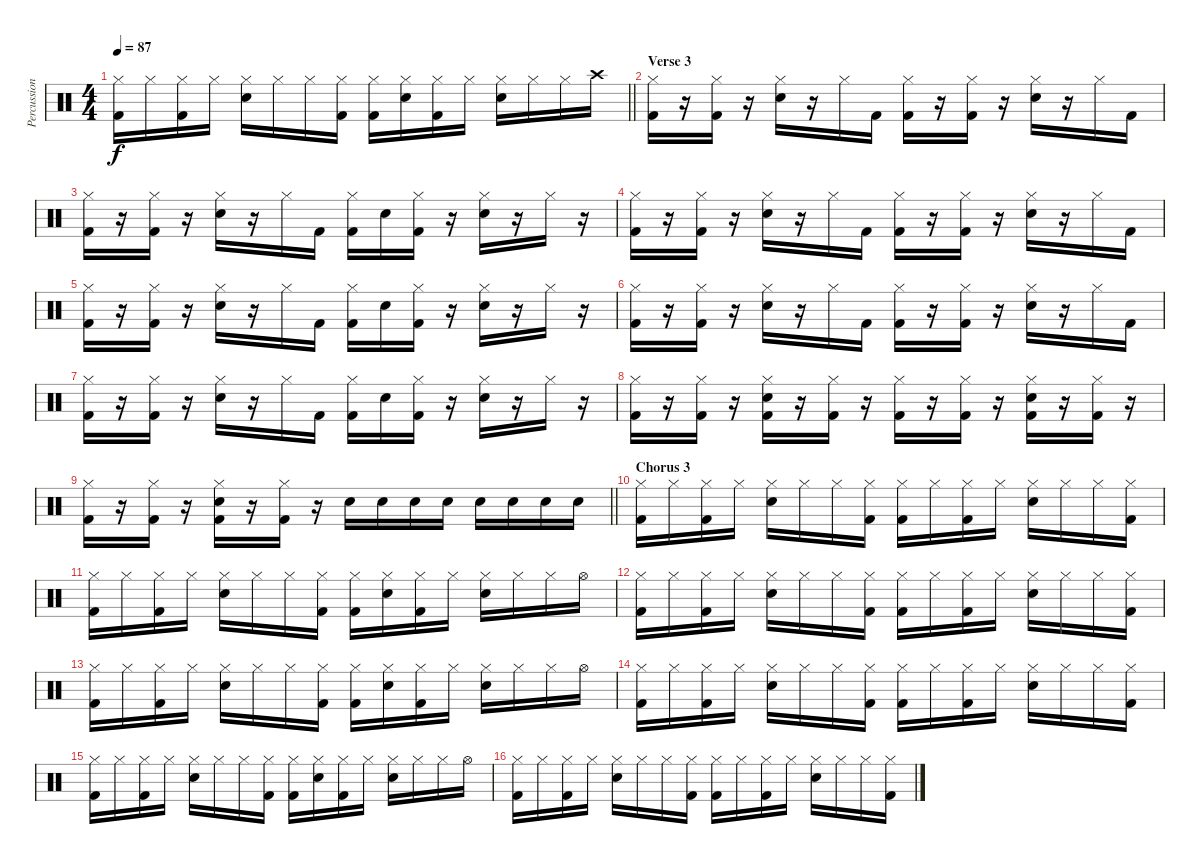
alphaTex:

\track ("Percussion" "Percussion") {instrument percussion}
\staff {score}
\articulation defaults
\ts (4 4)
\tempo 87
\clef neutral
\barLineRight lightlight
\ks c
("Hi-Hat (closed)" "Kick (hit) 2").16{dy f} "Hi-Hat (closed)".16 ("Hi-Hat (closed)" "Kick (hit) 2").16 "Hi-Hat (closed)".16 ("Hi-Hat (closed)" "Snare (hit) 2").16 "Hi-Hat (closed)".16 "Hi-Hat (closed)".16 ("Hi-Hat (closed)" "Kick (hit) 2").16 ("Hi-Hat (closed)" "Kick (hit) 2").16 ("Hi-Hat (closed)" "Snare (hit) 2").16 ("Hi-Hat (closed)" "Kick (hit) 2").16 "Hi-Hat (closed)".16 ("Hi-Hat (closed)" "Snare (hit) 2").16 "Hi-Hat (closed)".16 "Hi-Hat (closed)".16 "Crash high (hit)".16 |
\section ("" "Verse 3")
("Hi-Hat (closed)" "Kick (hit) 2").16 r.16 ("Hi-Hat (closed)" "Kick (hit) 2").16 r.16 ("Hi-Hat (closed)" "Snare (hit) 2").16 r.16 "Hi-Hat (closed)".16 "Kick (hit) 2".16 ("Hi-Hat (closed)" "Kick (hit) 2").16 r.16 ("Hi-Hat (closed)" "Kick (hit) 2").16 r.16 ("Hi-Hat (closed)" "Snare (hit) 2").16 r.16 "Hi-Hat (closed)".16 "Kick (hit) 2".16 |
("Hi-Hat (closed)" "Kick (hit) 2").16 r.16 ("Hi-Hat (closed)" "Kick (hit) 2").16 r.16 ("Hi-Hat (closed)" "Snare (hit) 2").16 r.16 "Hi-Hat (closed)".16 "Kick (hit) 2".16 ("Hi-Hat (closed)" "Kick (hit) 2").16 "Snare (hit) 2".16 ("Hi-Hat (closed)" "Kick (hit) 2").16 r.16 ("Hi-Hat (closed)" "Snare (hit) 2").16 r.16 "Hi-Hat (closed)".16 r.16 |
("Hi-Hat (closed)" "Kick (hit) 2").16 r.16 ("Hi-Hat (closed)" "Kick (hit) 2").16 r.16 ("Hi-Hat (closed)" "Snare (hit) 2").16 r.16 "Hi-Hat (closed)".16 "Kick (hit) 2".16 ("Hi-Hat (closed)" "Kick (hit) 2").16 r.16 ("Hi-Hat (closed)" "Kick (hit) 2").16 r.16 ("Hi-Hat (closed)" "Snare (hit) 2").16 r.16 "Hi-Hat (closed)".16 "Kick (hit) 2".16 |
("Hi-Hat (closed)" "Kick (hit) 2").16 r.16 ("Hi-Hat (closed)" "Kick (hit) 2").16 r.16 ("Hi-Hat (closed)" "Snare (hit) 2").16 r.16 "Hi-Hat (closed)".16 "Kick (hit) 2".16 ("Hi-Hat (closed)" "Kick (hit) 2").16 "Snare (hit) 2".16 ("Hi-Hat (closed)" "Kick (hit) 2").16 r.16 ("Hi-Hat (closed)" "Snare (hit) 2").16 r.16 "Hi-Hat (closed)".16 r.16 |
("Hi-Hat (closed)" "Kick (hit) 2").16 r.16 ("Hi-Hat (closed)" "Kick (hit) 2").16 r.16 ("Hi-Hat (closed)" "Snare (hit) 2").16 r.16 "Hi-Hat (closed)".16 "Kick (hit) 2".16 ("Hi-Hat (closed)" "Kick (hit) 2").16 r.16 ("Hi-Hat (closed)" "Kick (hit) 2").16 r.16 ("Hi-Hat (closed)" "Snare (hit) 2").16 r.16 "Hi-Hat (closed)".16 "Kick (hit) 2".16 |
("Hi-Hat (closed)" "Kick (hit) 2").16 r.16 ("Hi-Hat (closed)" "Kick (hit) 2").16 r.16 ("Hi-Hat (closed)" "Snare (hit) 2").16 r.16 "Hi-Hat (closed)".16 "Kick (hit) 2".16 ("Hi-Hat (closed)" "Kick (hit) 2").16 "Snare (hit) 2".16 ("Hi-Hat (closed)" "Kick (hit) 2").16 r.16 ("Hi-Hat (closed)" "Snare (hit) 2").16 r.16 "Hi-Hat (closed)".16 r.16 |
("Hi-Hat (closed)" "Kick (hit) 2").16 r.16 ("Hi-Hat (closed)" "Kick (hit) 2").16 r.16 ("Hi-Hat (closed)" "Snare (hit) 2" "Kick (hit) 2").16 r.16 ("Hi-Hat (closed)" "Kick (hit) 2").16 r.16 ("Hi-Hat (closed)" "Kick (hit) 2").16 r.16 ("Hi-Hat (closed)" "Kick (hit) 2").16 r.16 ("Hi-Hat (closed)" "Snare (hit) 2" "Kick (hit) 2").16 r.16 ("Hi-Hat (closed)" "Kick (hit) 2").16 r.16 |
\barLineRight lightlight
("Hi-Hat (closed)" "Kick (hit) 2").16 r.16 ("Hi-Hat (closed)" "Kick (hit) 2").16 r.16 ("Hi-Hat (closed)" "Snare (hit) 2" "Kick (hit) 2").16 r.16 ("Hi-Hat (closed)" "Kick (hit) 2").16 r.16 "Snare (hit) 2".16 "Snare (hit) 2".16 "Snare (hit) 2".16 "Snare (hit) 2".16 "Snare (hit) 2".16 "Snare (hit) 2".16 "Snare (hit) 2".16 "Snare (hit) 2".16 |
\section ("" "Chorus 3")
("Hi-Hat (closed)" "Kick (hit) 2").16 "Hi-Hat (closed)".16 ("Hi-Hat (closed)" "Kick (hit) 2").16 "Hi-Hat (closed)".16 ("Hi-Hat (closed)" "Snare (hit) 2").16 "Hi-Hat (closed)".16 "Hi-Hat (closed)".16 ("Hi-Hat (closed)" "Kick (hit) 2").16 ("Hi-Hat (closed)" "Kick (hit) 2").16 "Hi-Hat (closed)".16 ("Hi-Hat (closed)" "Kick (hit) 2").16 "Hi-Hat (closed)".16 ("Hi-Hat (closed)" "Snare (hit) 2").16 "Hi-Hat (closed)".16 "Hi-Hat (closed)".16 ("Hi-Hat (closed)" "Kick (hit) 2").16 |
("Hi-Hat (closed)" "Kick (hit) 2").16 "Hi-Hat (closed)".16 ("Hi-Hat (closed)" "Kick (hit) 2").16 "Hi-Hat (closed)".16 ("Hi-Hat (closed)" "Snare (hit) 2").16 "Hi-Hat (closed)".16 "Hi-Hat (closed)".16 ("Hi-Hat (closed)" "Kick (hit) 2").16 ("Hi-Hat (closed)" "Kick (hit) 2").16 ("Hi-Hat (closed)" "Snare (hit) 2").16 ("Hi-Hat (closed)" "Kick (hit) 2").16 "Hi-Hat (closed)".16 ("Hi-Hat (closed)" "Snare (hit) 2").16 "Hi-Hat (closed)".16 "Hi-Hat (closed)".16 "Hi-Hat (open)".16 |
("Hi-Hat (closed)" "Kick (hit) 2").16 "Hi-Hat (closed)".16 ("Hi-Hat (closed)" "Kick (hit) 2").16 "Hi-Hat (closed)".16 ("Hi-Hat (closed)" "Snare (hit) 2").16 "Hi-Hat (closed)".16 "Hi-Hat (closed)".16 ("Hi-Hat (closed)" "Kick (hit) 2").16 ("Hi-Hat (closed)" "Kick (hit) 2").16 "Hi-Hat (closed)".16 ("Hi-Hat (closed)" "Kick (hit) 2").16 "Hi-Hat (closed)".16 ("Hi-Hat (closed)" "Snare (hit) 2").16 "Hi-Hat (closed)".16 "Hi-Hat (closed)".16 ("Hi-Hat (closed)" "Kick (hit) 2").16 |
("Hi-Hat (closed)" "Kick (hit) 2").16 "Hi-Hat (closed)".16 ("Hi-Hat (closed)" "Kick (hit) 2").16 "Hi-Hat (closed)".16 ("Hi-Hat (closed)" "Snare (hit) 2").16 "Hi-Hat (closed)".16 "Hi-Hat (closed)".16 ("Hi-Hat (closed)" "Kick (hit) 2").16 ("Hi-Hat (closed)" "Kick (hit) 2").16 ("Hi-Hat (closed)" "Snare (hit) 2").16 ("Hi-Hat (closed)" "Kick (hit) 2").16 "Hi-Hat (closed)".16 ("Hi-Hat (closed)" "Snare (hit) 2").16 "Hi-Hat (closed)".16 "Hi-Hat (closed)".16 "Hi-Hat (open)".16 |
("Hi-Hat (closed)" "Kick (hit) 2").16 "Hi-Hat (closed)".16 ("Hi-Hat (closed)" "Kick (hit) 2").16 "Hi-Hat (closed)".16 ("Hi-Hat (closed)" "Snare (hit) 2").16 "Hi-Hat (closed)".16 "Hi-Hat (closed)".16 ("Hi-Hat (closed)" "Kick (hit) 2").16 ("Hi-Hat (closed)" "Kick (hit) 2").16 "Hi-Hat (closed)".16 ("Hi-Hat (closed)" "Kick (hit) 2").16 "Hi-Hat (closed)".16 ("Hi-Hat (closed)" "Snare (hit) 2").16 "Hi-Hat (closed)".16 "Hi-Hat (closed)".16 ("Hi-Hat (closed)" "Kick (hit) 2").16 |
("Hi-Hat (closed)" "Kick (hit) 2").16 "Hi-Hat (closed)".16 ("Hi-Hat (closed)" "Kick (hit) 2").16 "Hi-Hat (closed)".16 ("Hi-Hat (closed)" "Snare (hit) 2").16 "Hi-Hat (closed)".16 "Hi-Hat (closed)".16 ("Hi-Hat (closed)" "Kick (hit) 2").16 ("Hi-Hat (closed)" "Kick (hit) 2").16 ("Hi-Hat (closed)" "Snare (hit) 2").16 ("Hi-Hat (closed)" "Kick (hit) 2").16 "Hi-Hat (closed)".16 ("Hi-Hat (closed)" "Snare (hit) 2").16 "Hi-Hat (closed)".16 "Hi-Hat (closed)".16 "Hi-Hat (open)".16 |
("Hi-Hat (closed)" "Kick (hit) 2").16 "Hi-Hat (closed)".16 ("Hi-Hat (closed)" "Kick (hit) 2").16 "Hi-Hat (closed)".16 ("Hi-Hat (closed)" "Snare (hit) 2").16 "Hi-Hat (closed)".16 "Hi-Hat (closed)".16 ("Hi-Hat (closed)" "Kick (hit) 2").16 ("Hi-Hat (closed)" "Kick (hit) 2").16 "Hi-Hat (closed)".16 ("Hi-Hat (closed)" "Kick (hit) 2").16 "Hi-Hat (closed)".16 ("Hi-Hat (closed)" "Snare (hit) 2").16 "Hi-Hat (closed)".16 "Hi-Hat (closed)".16 ("Hi-Hat (closed)" "Kick (hit) 2").16
